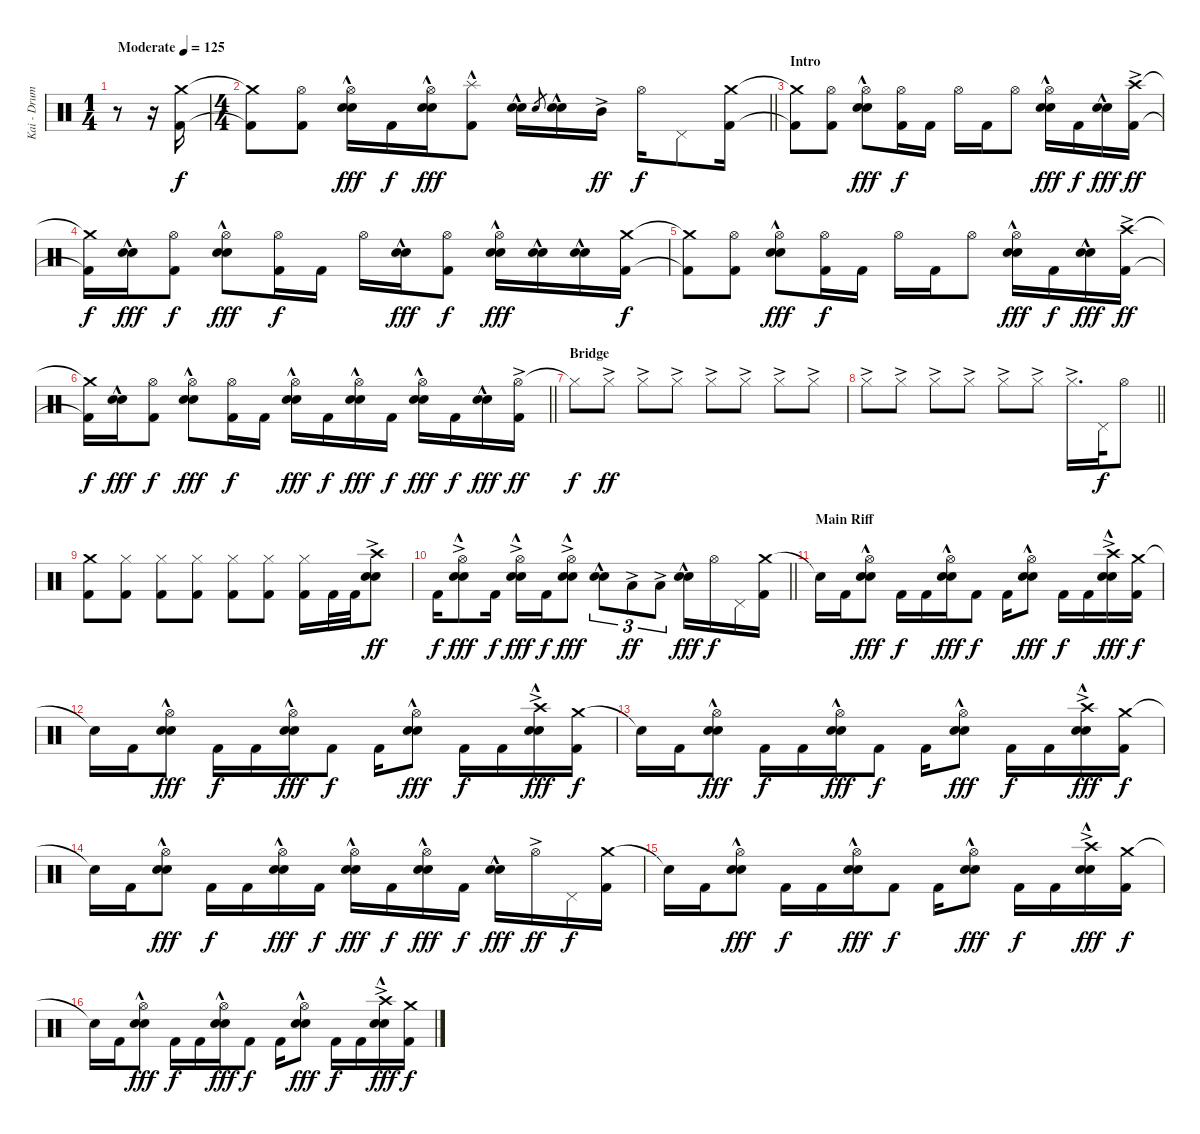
\track ("Kai - Drums" "Kai - Drum") {instrument percussion}
\staff {score}
\articulation defaults
\ts (1 4)
\tempo (125 "Moderate")
\clef neutral
\ks c
r.8{dy f} r.16 ("Crash medium (hit)" "Kick (hit) 2").16 |
\ts (4 4)
\barLineRight lightlight
("Crash medium (hit)"{t} "Kick (hit) 2"{t}).8 ("Hi-Hat (open)" "Kick (hit) 2").8 ("Hi-Hat (open)" "Electric Snare (hit)"{hac} "Snare (hit) 2").16{dy fff} "Kick (hit) 2".16{dy f} ("Hi-Hat (open)" "Electric Snare (hit)"{hac} "Snare (hit) 2").16{dy fff} ("Splash (hit)"{hac} "Kick (hit) 2").8 ("Electric Snare (hit)"{hac} "Snare (hit) 2").16 "Electric Snare (hit)".8{gr} ("Electric Snare (hit)"{hac} "Snare (hit) 2").16 "Mid Tom (hit)"{ac}.16{dy ff} "Hi-Hat (open)".16{dy f} "Pedal Hi-Hat (hit)".8 ("Crash medium (hit)" "Kick (hit) 2").16 |
\section ("" "Intro")
("Crash medium (hit)"{t} "Kick (hit) 2"{t}).8 ("Hi-Hat (open)" "Kick (hit) 2").8 ("Hi-Hat (open)" "Electric Snare (hit)"{hac} "Snare (hit) 2").8{dy fff} ("Hi-Hat (open)" "Kick (hit) 2").16{dy f} "Kick (hit) 2".16 "Hi-Hat (open)".16 "Kick (hit) 2".16 "Hi-Hat (open)".8 ("Hi-Hat (open)" "Electric Snare (hit)"{hac} "Snare (hit) 2").16{dy fff} "Kick (hit) 2".16{dy f} ("Electric Snare (hit)"{hac} "Snare (hit) 2").16{dy fff} ("Crash high (hit)"{ac} "Kick (hit) 2").16{dy ff} |
("Crash medium (hit)"{t} "Kick (hit) 2"{t}).16{dy f} ("Electric Snare (hit)"{hac} "Snare (hit) 2").16{dy fff} ("Hi-Hat (open)" "Kick (hit) 2").8{dy f} ("Hi-Hat (open)" "Electric Snare (hit)"{hac} "Snare (hit) 2").8{dy fff} ("Hi-Hat (open)" "Kick (hit) 2").16{dy f} "Kick (hit) 2".16 "Hi-Hat (open)".16 ("Electric Snare (hit)"{hac} "Snare (hit) 2").16{dy fff} ("Hi-Hat (open)" "Kick (hit) 2").8{dy f} ("Hi-Hat (open)" "Electric Snare (hit)"{hac} "Snare (hit) 2").16{dy fff} ("Electric Snare (hit)"{hac} "Snare (hit) 2").16 ("Electric Snare (hit)"{hac} "Snare (hit) 2").16 ("Crash medium (hit)" "Kick (hit) 2").16{dy f} |
("Crash medium (hit)"{t} "Kick (hit) 2"{t}).8 ("Hi-Hat (open)" "Kick (hit) 2").8 ("Hi-Hat (open)" "Electric Snare (hit)"{hac} "Snare (hit) 2").8{dy fff} ("Hi-Hat (open)" "Kick (hit) 2").16{dy f} "Kick (hit) 2".16 "Hi-Hat (open)".16 "Kick (hit) 2".16 "Hi-Hat (open)".8 ("Hi-Hat (open)" "Electric Snare (hit)"{hac} "Snare (hit) 2").16{dy fff} "Kick (hit) 2".16{dy f} ("Electric Snare (hit)"{hac} "Snare (hit) 2").16{dy fff} ("Crash high (hit)"{ac} "Kick (hit) 2").16{dy ff} |
\barLineRight lightlight
("Crash medium (hit)"{t} "Kick (hit) 2"{t}).16{dy f} ("Electric Snare (hit)"{hac} "Snare (hit) 2").16{dy fff} ("Hi-Hat (open)" "Kick (hit) 2").8{dy f} ("Hi-Hat (open)" "Electric Snare (hit)"{hac} "Snare (hit) 2").8{dy fff} ("Hi-Hat (open)" "Kick (hit) 2").16{dy f} "Kick (hit) 2".16 ("Hi-Hat (open)" "Electric Snare (hit)"{hac} "Snare (hit) 2").16{dy fff} "Kick (hit) 2".16{dy f} ("Hi-Hat (open)" "Electric Snare (hit)"{hac} "Snare (hit) 2").16{dy fff} "Kick (hit) 2".16{dy f} ("Hi-Hat (open)" "Electric Snare (hit)"{hac} "Snare (hit) 2").16{dy fff} "Kick (hit) 2".16{dy f} ("Electric Snare (hit)"{hac} "Snare (hit) 2").16{dy fff} ("Hi-Hat (open)"{ac} "Kick (hit) 2").16{dy ff} |
\section ("" "Bridge")
"Hi-Hat (closed)"{t}.8{dy f} "Hi-Hat (closed)"{ac}.8{dy ff} "Hi-Hat (closed)"{ac}.8 "Hi-Hat (closed)"{ac}.8 "Hi-Hat (closed)"{ac}.8 "Hi-Hat (closed)"{ac}.8 "Hi-Hat (closed)"{ac}.8 "Hi-Hat (closed)"{ac}.8 |
\barLineRight lightlight "Hi-Hat (closed)"{ac}.8 "Hi-Hat (closed)"{ac}.8 "Hi-Hat (closed)"{ac}.8 "Hi-Hat (closed)"{ac}.8 "Hi-Hat (closed)"{ac}.8 "Hi-Hat (closed)"{ac}.8 "Hi-Hat (closed)"{ac}.16{d} "Pedal Hi-Hat (hit)".32{dy f} "Hi-Hat (open)".8
|
("Crash medium (hit)" "Kick (hit) 2").8 ("Hi-Hat (closed)" "Kick (hit) 2").8 ("Hi-Hat (closed)" "Kick (hit) 2").8 ("Hi-Hat (closed)" "Kick (hit) 2").8 ("Hi-Hat (closed)" "Kick (hit) 2").8 ("Hi-Hat (closed)" "Kick (hit) 2").8 ("Hi-Hat (closed)" "Kick (hit) 2").16 "Kick (hit) 2".32 "Kick (hit) 2".32 ("Crash high (hit)" "Electric Snare (hit)"{ac} "Snare (hit) 2").8{dy ff} |
\barLineRight lightlight "Kick (hit) 2".16{dy f}
("Hi-Hat (open)"{ac} "Electric Snare (hit)"{hac} "Snare (hit) 2").8{dy fff} "Kick (hit) 2".16{dy f} ("Hi-Hat (open)"{ac} "Electric Snare (hit)"{hac} "Snare (hit) 2").16{dy fff} "Kick (hit) 2".16{dy f} ("Hi-Hat (open)"{ac} "Electric Snare (hit)"{hac} "Snare (hit) 2").8{dy fff} ("Electric Snare (hit)"{hac} "Snare (hit) 2").8{tu (3 2)} "Low Tom (hit)"{ac}.8{tu (3 2) dy ff} "Low Tom (hit)"{ac}.8{tu (3 2)} ("Electric Snare (hit)"{hac} "Snare (hit) 2").16{dy fff} "Hi-Hat (open)".16{dy f} "Pedal Hi-Hat (hit)".16 ("Crash medium (hit)" "Kick (hit) 2").16 |
\section ("" "Main Riff")
"Snare (hit)"{t}.16 "Kick (hit) 2".16 ("Hi-Hat (open)" "Electric Snare (hit)"{hac} "Snare (hit) 2").8{dy fff} "Kick (hit) 2".16{dy f} "Kick (hit) 2".16 ("Hi-Hat (open)" "Electric Snare (hit)"{hac} "Snare (hit) 2").16{dy fff} "Kick (hit) 2".8{dy f} "Kick (hit) 2".16 ("Hi-Hat (open)" "Electric Snare (hit)"{hac} "Snare (hit) 2").8{dy fff} "Kick (hit) 2".16{dy f} "Kick (hit) 2".16 ("Crash high (hit)"{ac} "Electric Snare (hit)"{hac} "Snare (hit) 2").16{dy fff} ("Crash medium (hit)" "Kick (hit) 2").16{dy f} |
"Snare (hit)"{t}.16 "Kick (hit) 2".16 ("Hi-Hat (open)" "Electric Snare (hit)"{hac} "Snare (hit) 2").8{dy fff} "Kick (hit) 2".16{dy f} "Kick (hit) 2".16 ("Hi-Hat (open)" "Electric Snare (hit)"{hac} "Snare (hit) 2").16{dy fff} "Kick (hit) 2".8{dy f} "Kick (hit) 2".16 ("Hi-Hat (open)" "Electric Snare (hit)"{hac} "Snare (hit) 2").8{dy fff} "Kick (hit) 2".16{dy f} "Kick (hit) 2".16 ("Crash high (hit)"{ac} "Electric Snare (hit)"{hac} "Snare (hit) 2").16{dy fff} ("Crash medium (hit)" "Kick (hit) 2").16{dy f} |
"Snare (hit)"{t}.16 "Kick (hit) 2".16 ("Hi-Hat (open)" "Electric Snare (hit)"{hac} "Snare (hit) 2").8{dy fff} "Kick (hit) 2".16{dy f} "Kick (hit) 2".16 ("Hi-Hat (open)" "Electric Snare (hit)"{hac} "Snare (hit) 2").16{dy fff} "Kick (hit) 2".8{dy f} "Kick (hit) 2".16 ("Hi-Hat (open)" "Electric Snare (hit)"{hac} "Snare (hit) 2").8{dy fff} "Kick (hit) 2".16{dy f} "Kick (hit) 2".16 ("Crash high (hit)"{ac} "Electric Snare (hit)"{hac} "Snare (hit) 2").16{dy fff} ("Crash medium (hit)" "Kick (hit) 2").16{dy f} |
"Snare (hit)"{t}.16 "Kick (hit) 2".16 ("Hi-Hat (open)" "Electric Snare (hit)"{hac} "Snare (hit) 2").8{dy fff} "Kick (hit) 2".16{dy f} "Kick (hit) 2".16 ("Hi-Hat (open)" "Electric Snare (hit)"{hac} "Snare (hit) 2").16{dy fff} "Kick (hit) 2".16{dy f} ("Hi-Hat (open)" "Electric Snare (hit)"{hac} "Snare (hit) 2").16{dy fff} "Kick (hit) 2".16{dy f} ("Hi-Hat (open)" "Electric Snare (hit)"{hac} "Snare (hit) 2").16{dy fff} "Kick (hit) 2".16{dy f} ("Electric Snare (hit)"{hac} "Snare (hit) 2").16{dy fff} "Hi-Hat (open)"{ac}.16{dy ff} "Pedal Hi-Hat (hit)".16{dy f} ("Crash medium (hit)" "Kick (hit) 2").16 |
"Snare (hit)"{t}.16 "Kick (hit) 2".16 ("Hi-Hat (open)" "Electric Snare (hit)"{hac} "Snare (hit) 2").8{dy fff} "Kick (hit) 2".16{dy f} "Kick (hit) 2".16 ("Hi-Hat (open)" "Electric Snare (hit)"{hac} "Snare (hit) 2").16{dy fff} "Kick (hit) 2".8{dy f} "Kick (hit) 2".16 ("Hi-Hat (open)" "Electric Snare (hit)"{hac} "Snare (hit) 2").8{dy fff} "Kick (hit) 2".16{dy f} "Kick (hit) 2".16 ("Crash high (hit)"{ac} "Electric Snare (hit)"{hac} "Snare (hit) 2").16{dy fff} ("Crash medium (hit)" "Kick (hit) 2").16{dy f} |
"Snare (hit)"{t}.16 "Kick (hit) 2".16 ("Hi-Hat (open)" "Electric Snare (hit)"{hac} "Snare (hit) 2").8{dy fff} "Kick (hit) 2".16{dy f} "Kick (hit) 2".16 ("Hi-Hat (open)" "Electric Snare (hit)"{hac} "Snare (hit) 2").16{dy fff} "Kick (hit) 2".8{dy f} "Kick (hit) 2".16 ("Hi-Hat (open)" "Electric Snare (hit)"{hac} "Snare (hit) 2").8{dy fff} "Kick (hit) 2".16{dy f} "Kick (hit) 2".16 ("Crash high (hit)"{ac} "Electric Snare (hit)"{hac} "Snare (hit) 2").16{dy fff} ("Crash medium (hit)" "Kick (hit) 2").16{dy f}
